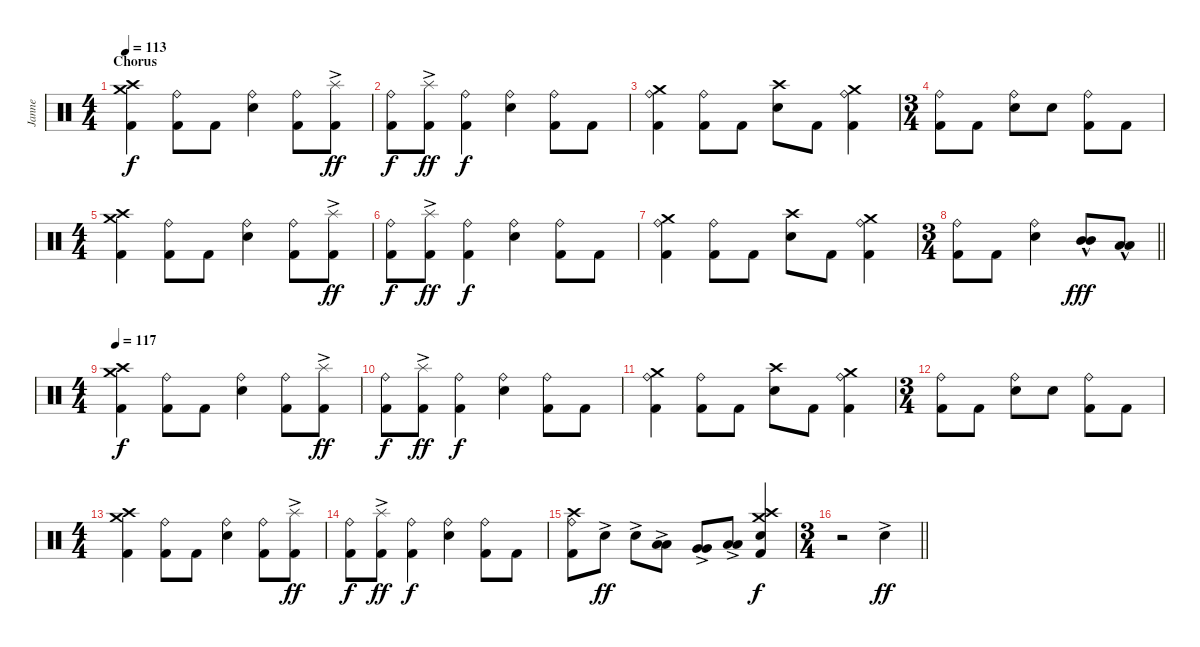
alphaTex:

\track ("Janne" "Janne") {instrument percussion}
\staff {score}
\articulation defaults
\ts (4 4)
\section ("" "Chorus")
\tempo 113
\clef neutral
\ks c
("Kick (hit) 2" "Crash medium (hit)" "Crash high (hit)").4{dy f} ("Kick (hit) 2" "Ride (bell)").8 "Kick (hit) 2".8 ("Snare (hit) 2" "Ride (bell)").4 ("Kick (hit) 2" "Ride (bell)").8 ("Kick (hit) 2" "Splash (hit)"{ac}).8{dy ff} |
("Kick (hit) 2" "Ride (bell)").8{dy f} ("Kick (hit) 2" "Splash (hit)"{ac}).8{dy ff} ("Kick (hit) 2" "Ride (bell)").4{dy f} ("Snare (hit) 2" "Ride (bell)").4 ("Kick (hit) 2" "Ride (bell)").8 "Kick (hit) 2".8 |
("Kick (hit) 2" "Ride (bell)" "Crash medium (hit)").4 ("Kick (hit) 2" "Ride (bell)").8 "Kick (hit) 2".8 ("Snare (hit) 2" "Crash high (hit)").8 "Kick (hit) 2".8 ("Kick (hit) 2" "Ride (bell)" "Crash medium (hit)").4 |
\ts (3 4)
("Kick (hit) 2" "Ride (bell)").8 "Kick (hit) 2".8 ("Snare (hit) 2" "Ride (bell)").8 "Snare (hit) 2".8 ("Kick (hit) 2" "Ride (bell)").8 "Kick (hit) 2".8 |
\ts (4 4)
("Kick (hit) 2" "Crash medium (hit)" "Crash high (hit)").4 ("Kick (hit) 2" "Ride (bell)").8 "Kick (hit) 2".8 ("Snare (hit) 2" "Ride (bell)").4 ("Kick (hit) 2" "Ride (bell)").8 ("Kick (hit) 2" "Splash (hit)"{ac}).8{dy ff} |
("Kick (hit) 2" "Ride (bell)").8{dy f} ("Kick (hit) 2" "Splash (hit)"{ac}).8{dy ff} ("Kick (hit) 2" "Ride (bell)").4{dy f} ("Snare (hit) 2" "Ride (bell)").4 ("Kick (hit) 2" "Ride (bell)").8 "Kick (hit) 2".8 |
("Kick (hit) 2" "Ride (bell)" "Crash medium (hit)").4 ("Kick (hit) 2" "Ride (bell)").8 "Kick (hit) 2".8 ("Snare (hit) 2" "Crash high (hit)").8 "Kick (hit) 2".8 ("Kick (hit) 2" "Ride (bell)" "Crash medium (hit)").4 |
\ts (3 4)
\barLineRight lightlight
("Kick (hit) 2" "Ride (bell)").8 "Kick (hit) 2".8 ("Snare (hit) 2" "Ride (bell)").4 ("Mid Tom (hit)"{hac} "Mid Tom (hit)"{hac}).8{dy fff} ("Low Tom (hit)"{hac} "Low Tom (hit)"{hac}).8 |
\ts (4 4)
\section ("" "")
\tempo 117
("Kick (hit) 2" "Crash medium (hit)" "Crash high (hit)").4{dy f} ("Kick (hit) 2" "Ride (bell)").8 "Kick (hit) 2".8 ("Snare (hit) 2" "Ride (bell)").4 ("Kick (hit) 2" "Ride (bell)").8 ("Kick (hit) 2" "Splash (hit)"{ac}).8{dy ff} |
("Kick (hit) 2" "Ride (bell)").8{dy f} ("Kick (hit) 2" "Splash (hit)"{ac}).8{dy ff} ("Kick (hit) 2" "Ride (bell)").4{dy f} ("Snare (hit) 2" "Ride (bell)").4 ("Kick (hit) 2" "Ride (bell)").8 "Kick (hit) 2".8 |
("Kick (hit) 2" "Ride (bell)" "Crash medium (hit)").4 ("Kick (hit) 2" "Ride (bell)").8 "Kick (hit) 2".8 ("Snare (hit) 2" "Crash high (hit)").8 "Kick (hit) 2".8 ("Kick (hit) 2" "Ride (bell)" "Crash medium (hit)").4 |
\ts (3 4)
("Kick (hit) 2" "Ride (bell)").8 "Kick (hit) 2".8 ("Snare (hit) 2" "Ride (bell)").8 "Snare (hit) 2".8 ("Kick (hit) 2" "Ride (bell)").8 "Kick (hit) 2".8 |
\ts (4 4)
("Kick (hit) 2" "Crash medium (hit)" "Crash high (hit)").4 ("Kick (hit) 2" "Ride (bell)").8 "Kick (hit) 2".8 ("Snare (hit) 2" "Ride (bell)").4 ("Kick (hit) 2" "Ride (bell)").8 ("Kick (hit) 2" "Splash (hit)"{ac}).8{dy ff} |
("Kick (hit) 2" "Ride (bell)").8{dy f} ("Kick (hit) 2" "Splash (hit)"{ac}).8{dy ff} ("Kick (hit) 2" "Ride (bell)").4{dy f} ("Snare (hit) 2" "Ride (bell)").4 ("Kick (hit) 2" "Ride (bell)").8 "Kick (hit) 2".8 |
("Kick (hit) 2" "Ride (bell)" "Crash high (hit)").8 "Snare (hit) 2"{ac}.8{dy ff} "Snare (hit) 2"{ac}.8 ("Low Tom (hit)"{ac} "Low Tom (hit)"{ac}).8 ("Very Low Tom (hit)"{ac} "Very Low Tom (hit)"{ac}).8 ("Low Floor Tom (hit)"{ac} "Low Floor Tom (hit)"{ac}).8 ("Kick (hit) 2" "Snare (hit) 2" "Crash high (hit)" "Crash medium (hit)").4{dy f} |
\ts (3 4)
\barLineRight lightlight
r.2 "Snare (hit) 2"{ac}.4{dy ff}
